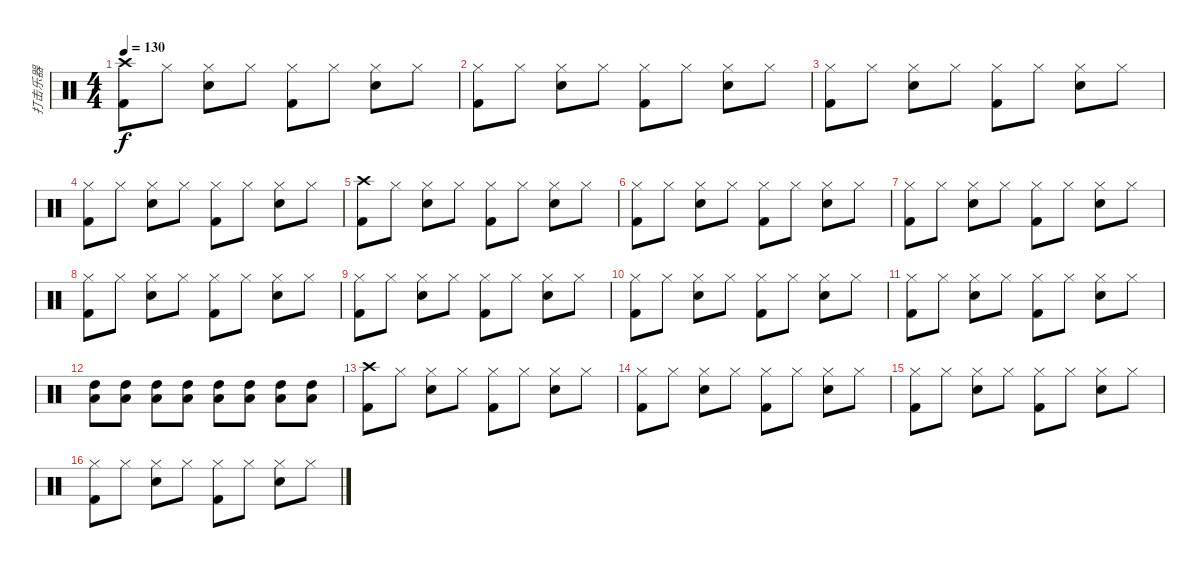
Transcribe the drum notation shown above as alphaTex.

\track ("打击乐器" "打击乐器") {instrument percussion}
\staff {score}
\articulation defaults
\ts (4 4)
\tempo 130
\clef neutral
\ks c
("Kick (hit) 2" "Crash high (hit)").8{dy f} "Hi-Hat (closed)".8 ("Snare (hit) 2" "Hi-Hat (closed)").8 "Hi-Hat (closed)".8 ("Kick (hit) 2" "Hi-Hat (closed)").8 "Hi-Hat (closed)".8 ("Snare (hit) 2" "Hi-Hat (closed)").8 "Hi-Hat (closed)".8 |
("Kick (hit) 2" "Hi-Hat (closed)").8 "Hi-Hat (closed)".8 ("Snare (hit) 2" "Hi-Hat (closed)").8 "Hi-Hat (closed)".8 ("Kick (hit) 2" "Hi-Hat (closed)").8 "Hi-Hat (closed)".8 ("Snare (hit) 2" "Hi-Hat (closed)").8 "Hi-Hat (closed)".8 |
("Kick (hit) 2" "Hi-Hat (closed)").8 "Hi-Hat (closed)".8 ("Snare (hit) 2" "Hi-Hat (closed)").8 "Hi-Hat (closed)".8 ("Kick (hit) 2" "Hi-Hat (closed)").8 "Hi-Hat (closed)".8 ("Snare (hit) 2" "Hi-Hat (closed)").8 "Hi-Hat (closed)".8 |
("Kick (hit) 2" "Hi-Hat (closed)").8 "Hi-Hat (closed)".8 ("Snare (hit) 2" "Hi-Hat (closed)").8 "Hi-Hat (closed)".8 ("Kick (hit) 2" "Hi-Hat (closed)").8 "Hi-Hat (closed)".8 ("Snare (hit) 2" "Hi-Hat (closed)").8 "Hi-Hat (closed)".8 |
("Kick (hit) 2" "Crash high (hit)").8 "Hi-Hat (closed)".8 ("Snare (hit) 2" "Hi-Hat (closed)").8 "Hi-Hat (closed)".8 ("Kick (hit) 2" "Hi-Hat (closed)").8 "Hi-Hat (closed)".8 ("Snare (hit) 2" "Hi-Hat (closed)").8 "Hi-Hat (closed)".8 |
("Kick (hit) 2" "Hi-Hat (closed)").8 "Hi-Hat (closed)".8 ("Snare (hit) 2" "Hi-Hat (closed)").8 "Hi-Hat (closed)".8 ("Kick (hit) 2" "Hi-Hat (closed)").8 "Hi-Hat (closed)".8 ("Snare (hit) 2" "Hi-Hat (closed)").8 "Hi-Hat (closed)".8 |
("Kick (hit) 2" "Hi-Hat (closed)").8 "Hi-Hat (closed)".8 ("Snare (hit) 2" "Hi-Hat (closed)").8 "Hi-Hat (closed)".8 ("Kick (hit) 2" "Hi-Hat (closed)").8 "Hi-Hat (closed)".8 ("Snare (hit) 2" "Hi-Hat (closed)").8 "Hi-Hat (closed)".8 |
("Kick (hit) 2" "Hi-Hat (closed)").8 "Hi-Hat (closed)".8 ("Snare (hit) 2" "Hi-Hat (closed)").8 "Hi-Hat (closed)".8 ("Kick (hit) 2" "Hi-Hat (closed)").8 "Hi-Hat (closed)".8 ("Snare (hit) 2" "Hi-Hat (closed)").8 "Hi-Hat (closed)".8 |
("Kick (hit) 2" "Hi-Hat (closed)").8 "Hi-Hat (closed)".8 ("Snare (hit) 2" "Hi-Hat (closed)").8 "Hi-Hat (closed)".8 ("Kick (hit) 2" "Hi-Hat (closed)").8 "Hi-Hat (closed)".8 ("Snare (hit) 2" "Hi-Hat (closed)").8 "Hi-Hat (closed)".8 |
("Kick (hit) 2" "Hi-Hat (closed)").8 "Hi-Hat (closed)".8 ("Snare (hit) 2" "Hi-Hat (closed)").8 "Hi-Hat (closed)".8 ("Kick (hit) 2" "Hi-Hat (closed)").8 "Hi-Hat (closed)".8 ("Snare (hit) 2" "Hi-Hat (closed)").8 "Hi-Hat (closed)".8 |
("Kick (hit) 2" "Hi-Hat (closed)").8 "Hi-Hat (closed)".8 ("Snare (hit) 2" "Hi-Hat (closed)").8 "Hi-Hat (closed)".8 ("Kick (hit) 2" "Hi-Hat (closed)").8 "Hi-Hat (closed)".8 ("Snare (hit) 2" "Hi-Hat (closed)").8 "Hi-Hat (closed)".8 |
("High Tom (hit)" "Low Tom (hit)").8 ("High Tom (hit)" "Low Tom (hit)").8 ("High Tom (hit)" "Low Tom (hit)").8 ("High Tom (hit)" "Low Tom (hit)").8 ("High Tom (hit)" "Low Tom (hit)").8 ("High Tom (hit)" "Low Tom (hit)").8 ("High Tom (hit)" "Low Tom (hit)").8 ("High Tom (hit)" "Low Tom (hit)").8 |
("Kick (hit) 2" "Crash high (hit)").8 "Hi-Hat (closed)".8 ("Snare (hit) 2" "Hi-Hat (closed)").8 "Hi-Hat (closed)".8 ("Kick (hit) 2" "Hi-Hat (closed)").8 "Hi-Hat (closed)".8 ("Snare (hit) 2" "Hi-Hat (closed)").8 "Hi-Hat (closed)".8 |
("Kick (hit) 2" "Hi-Hat (closed)").8 "Hi-Hat (closed)".8 ("Snare (hit) 2" "Hi-Hat (closed)").8 "Hi-Hat (closed)".8 ("Kick (hit) 2" "Hi-Hat (closed)").8 "Hi-Hat (closed)".8 ("Snare (hit) 2" "Hi-Hat (closed)").8 "Hi-Hat (closed)".8 |
("Kick (hit) 2" "Hi-Hat (closed)").8 "Hi-Hat (closed)".8 ("Snare (hit) 2" "Hi-Hat (closed)").8 "Hi-Hat (closed)".8 ("Kick (hit) 2" "Hi-Hat (closed)").8 "Hi-Hat (closed)".8 ("Snare (hit) 2" "Hi-Hat (closed)").8 "Hi-Hat (closed)".8 |
("Kick (hit) 2" "Hi-Hat (closed)").8 "Hi-Hat (closed)".8 ("Snare (hit) 2" "Hi-Hat (closed)").8 "Hi-Hat (closed)".8 ("Kick (hit) 2" "Hi-Hat (closed)").8 "Hi-Hat (closed)".8 ("Snare (hit) 2" "Hi-Hat (closed)").8 "Hi-Hat (closed)".8
